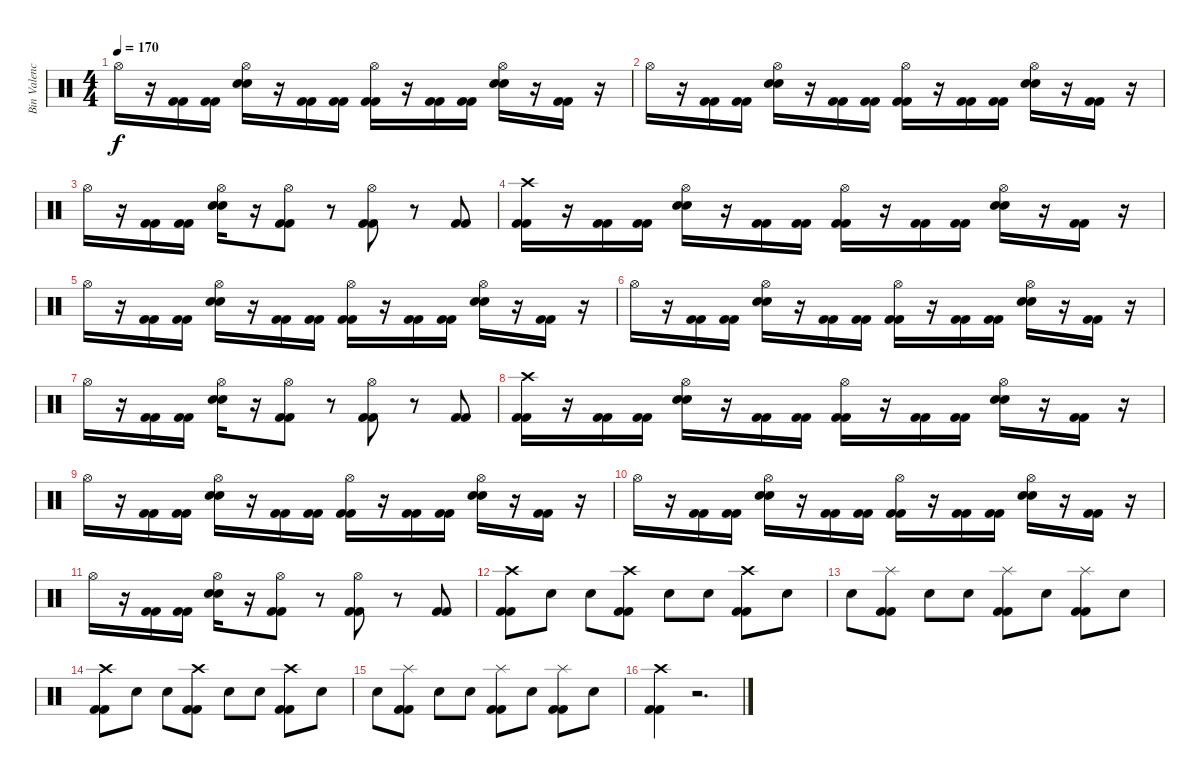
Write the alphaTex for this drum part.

\track ("Bin Valencia (Bateria)" "Bin Valenc") {instrument percussion}
\staff {score}
\articulation defaults
\ts (4 4)
\tempo 170
\clef neutral
\ks c "Hi-Hat (open)".16{dy f}
r.16 ("Kick (hit) 2" "Kick (hit) 2").16 ("Kick (hit) 2" "Kick (hit) 2").16 ("Hi-Hat (open)" "Snare (hit) 2" "Snare (hit) 2").16 r.16 ("Kick (hit) 2" "Kick (hit) 2").16 ("Kick (hit) 2" "Kick (hit) 2").16 ("Hi-Hat (open)" "Kick (hit) 2" "Kick (hit) 2").16 r.16 ("Kick (hit) 2" "Kick (hit) 2").16 ("Kick (hit) 2" "Kick (hit) 2").16 ("Hi-Hat (open)" "Snare (hit) 2" "Snare (hit) 2").16 r.16 ("Kick (hit) 2" "Kick (hit) 2").16 r.16 |
"Hi-Hat (open)".16 r.16 ("Kick (hit) 2" "Kick (hit) 2").16 ("Kick (hit) 2" "Kick (hit) 2").16 ("Hi-Hat (open)" "Snare (hit) 2" "Snare (hit) 2").16 r.16 ("Kick (hit) 2" "Kick (hit) 2").16 ("Kick (hit) 2" "Kick (hit) 2").16 ("Hi-Hat (open)" "Kick (hit) 2" "Kick (hit) 2").16 r.16 ("Kick (hit) 2" "Kick (hit) 2").16 ("Kick (hit) 2" "Kick (hit) 2").16 ("Hi-Hat (open)" "Snare (hit) 2" "Snare (hit) 2").16 r.16 ("Kick (hit) 2" "Kick (hit) 2").16 r.16 |
"Hi-Hat (open)".16 r.16 ("Kick (hit) 2" "Kick (hit) 2").16 ("Kick (hit) 2" "Kick (hit) 2").16 ("Hi-Hat (open)" "Snare (hit) 2" "Snare (hit) 2").16 r.16 ("Hi-Hat (open)" "Kick (hit) 2" "Kick (hit) 2").8 r.8 ("Hi-Hat (open)" "Kick (hit) 2" "Kick (hit) 2").8 r.8 ("Kick (hit) 2" "Kick (hit) 2").8 |
("Crash high (hit)" "Kick (hit) 2" "Kick (hit) 2").16 r.16 ("Kick (hit) 2" "Kick (hit) 2").16 ("Kick (hit) 2" "Kick (hit) 2").16 ("Hi-Hat (open)" "Snare (hit) 2" "Snare (hit) 2").16 r.16 ("Kick (hit) 2" "Kick (hit) 2").16 ("Kick (hit) 2" "Kick (hit) 2").16 ("Hi-Hat (open)" "Kick (hit) 2" "Kick (hit) 2").16 r.16 ("Kick (hit) 2" "Kick (hit) 2").16 ("Kick (hit) 2" "Kick (hit) 2").16 ("Hi-Hat (open)" "Snare (hit) 2" "Snare (hit) 2").16 r.16 ("Kick (hit) 2" "Kick (hit) 2").16 r.16 |
"Hi-Hat (open)".16 r.16 ("Kick (hit) 2" "Kick (hit) 2").16 ("Kick (hit) 2" "Kick (hit) 2").16 ("Hi-Hat (open)" "Snare (hit) 2" "Snare (hit) 2").16 r.16 ("Kick (hit) 2" "Kick (hit) 2").16 ("Kick (hit) 2" "Kick (hit) 2").16 ("Hi-Hat (open)" "Kick (hit) 2" "Kick (hit) 2").16 r.16 ("Kick (hit) 2" "Kick (hit) 2").16 ("Kick (hit) 2" "Kick (hit) 2").16 ("Hi-Hat (open)" "Snare (hit) 2" "Snare (hit) 2").16 r.16 ("Kick (hit) 2" "Kick (hit) 2").16 r.16 |
"Hi-Hat (open)".16 r.16 ("Kick (hit) 2" "Kick (hit) 2").16 ("Kick (hit) 2" "Kick (hit) 2").16 ("Hi-Hat (open)" "Snare (hit) 2" "Snare (hit) 2").16 r.16 ("Kick (hit) 2" "Kick (hit) 2").16 ("Kick (hit) 2" "Kick (hit) 2").16 ("Hi-Hat (open)" "Kick (hit) 2" "Kick (hit) 2").16 r.16 ("Kick (hit) 2" "Kick (hit) 2").16 ("Kick (hit) 2" "Kick (hit) 2").16 ("Hi-Hat (open)" "Snare (hit) 2" "Snare (hit) 2").16 r.16 ("Kick (hit) 2" "Kick (hit) 2").16 r.16 |
"Hi-Hat (open)".16 r.16 ("Kick (hit) 2" "Kick (hit) 2").16 ("Kick (hit) 2" "Kick (hit) 2").16 ("Hi-Hat (open)" "Snare (hit) 2" "Snare (hit) 2").16 r.16 ("Hi-Hat (open)" "Kick (hit) 2" "Kick (hit) 2").8 r.8 ("Hi-Hat (open)" "Kick (hit) 2" "Kick (hit) 2").8 r.8 ("Kick (hit) 2" "Kick (hit) 2").8 |
("Crash high (hit)" "Kick (hit) 2" "Kick (hit) 2").16 r.16 ("Kick (hit) 2" "Kick (hit) 2").16 ("Kick (hit) 2" "Kick (hit) 2").16 ("Hi-Hat (open)" "Snare (hit) 2" "Snare (hit) 2").16 r.16 ("Kick (hit) 2" "Kick (hit) 2").16 ("Kick (hit) 2" "Kick (hit) 2").16 ("Hi-Hat (open)" "Kick (hit) 2" "Kick (hit) 2").16 r.16 ("Kick (hit) 2" "Kick (hit) 2").16 ("Kick (hit) 2" "Kick (hit) 2").16 ("Hi-Hat (open)" "Snare (hit) 2" "Snare (hit) 2").16 r.16 ("Kick (hit) 2" "Kick (hit) 2").16 r.16 |
"Hi-Hat (open)".16 r.16 ("Kick (hit) 2" "Kick (hit) 2").16 ("Kick (hit) 2" "Kick (hit) 2").16 ("Hi-Hat (open)" "Snare (hit) 2" "Snare (hit) 2").16 r.16 ("Kick (hit) 2" "Kick (hit) 2").16 ("Kick (hit) 2" "Kick (hit) 2").16 ("Hi-Hat (open)" "Kick (hit) 2" "Kick (hit) 2").16 r.16 ("Kick (hit) 2" "Kick (hit) 2").16 ("Kick (hit) 2" "Kick (hit) 2").16 ("Hi-Hat (open)" "Snare (hit) 2" "Snare (hit) 2").16 r.16 ("Kick (hit) 2" "Kick (hit) 2").16 r.16 |
"Hi-Hat (open)".16 r.16 ("Kick (hit) 2" "Kick (hit) 2").16 ("Kick (hit) 2" "Kick (hit) 2").16 ("Hi-Hat (open)" "Snare (hit) 2" "Snare (hit) 2").16 r.16 ("Kick (hit) 2" "Kick (hit) 2").16 ("Kick (hit) 2" "Kick (hit) 2").16 ("Hi-Hat (open)" "Kick (hit) 2" "Kick (hit) 2").16 r.16 ("Kick (hit) 2" "Kick (hit) 2").16 ("Kick (hit) 2" "Kick (hit) 2").16 ("Hi-Hat (open)" "Snare (hit) 2" "Snare (hit) 2").16 r.16 ("Kick (hit) 2" "Kick (hit) 2").16 r.16 |
"Hi-Hat (open)".16 r.16 ("Kick (hit) 2" "Kick (hit) 2").16 ("Kick (hit) 2" "Kick (hit) 2").16 ("Hi-Hat (open)" "Snare (hit) 2" "Snare (hit) 2").16 r.16 ("Hi-Hat (open)" "Kick (hit) 2" "Kick (hit) 2").8 r.8 ("Hi-Hat (open)" "Kick (hit) 2" "Kick (hit) 2").8 r.8 ("Kick (hit) 2" "Kick (hit) 2").8 |
("Crash high (hit)" "Kick (hit) 2" "Kick (hit) 2").8 "Snare (hit) 2".8 "Snare (hit) 2".8 ("Crash high (hit)" "Kick (hit) 2" "Kick (hit) 2").8 "Snare (hit) 2".8 "Snare (hit) 2".8 ("Crash high (hit)" "Kick (hit) 2" "Kick (hit) 2").8 "Snare (hit) 2".8 |
"Snare (hit) 2".8 ("Splash (hit)" "Kick (hit) 2" "Kick (hit) 2").8 "Snare (hit) 2".8 "Snare (hit) 2".8 ("Splash (hit)" "Kick (hit) 2" "Kick (hit) 2").8 "Snare (hit) 2".8 ("Splash (hit)" "Kick (hit) 2" "Kick (hit) 2").8 "Snare (hit) 2".8 |
("Crash high (hit)" "Kick (hit) 2" "Kick (hit) 2").8 "Snare (hit) 2".8 "Snare (hit) 2".8 ("Crash high (hit)" "Kick (hit) 2" "Kick (hit) 2").8 "Snare (hit) 2".8 "Snare (hit) 2".8 ("Crash high (hit)" "Kick (hit) 2" "Kick (hit) 2").8 "Snare (hit) 2".8 |
"Snare (hit) 2".8 ("Splash (hit)" "Kick (hit) 2" "Kick (hit) 2").8 "Snare (hit) 2".8 "Snare (hit) 2".8 ("Splash (hit)" "Kick (hit) 2" "Kick (hit) 2").8 "Snare (hit) 2".8 ("Splash (hit)" "Kick (hit) 2" "Kick (hit) 2").8 "Snare (hit) 2".8 |
("Crash high (hit)" "Kick (hit) 2" "Kick (hit) 2").4 r.2{d}
